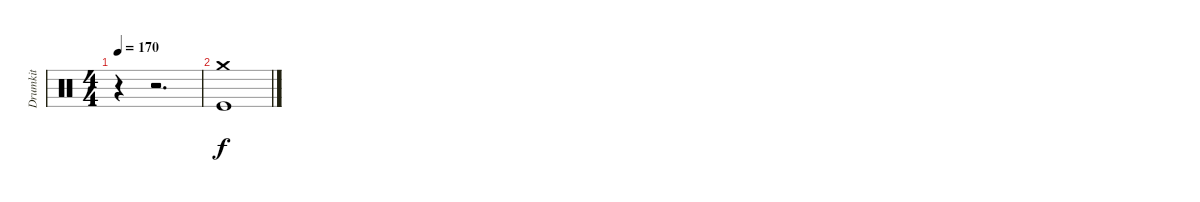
\track ("Drumkit" "Drumkit") {instrument percussion}
\staff {score}
\articulation defaults
\ts (4 4)
\tempo 170
\clef neutral
\ks c
r.4{dy f} r.2{d} |
("Crash medium (hit)" "Kick (hit)").1
